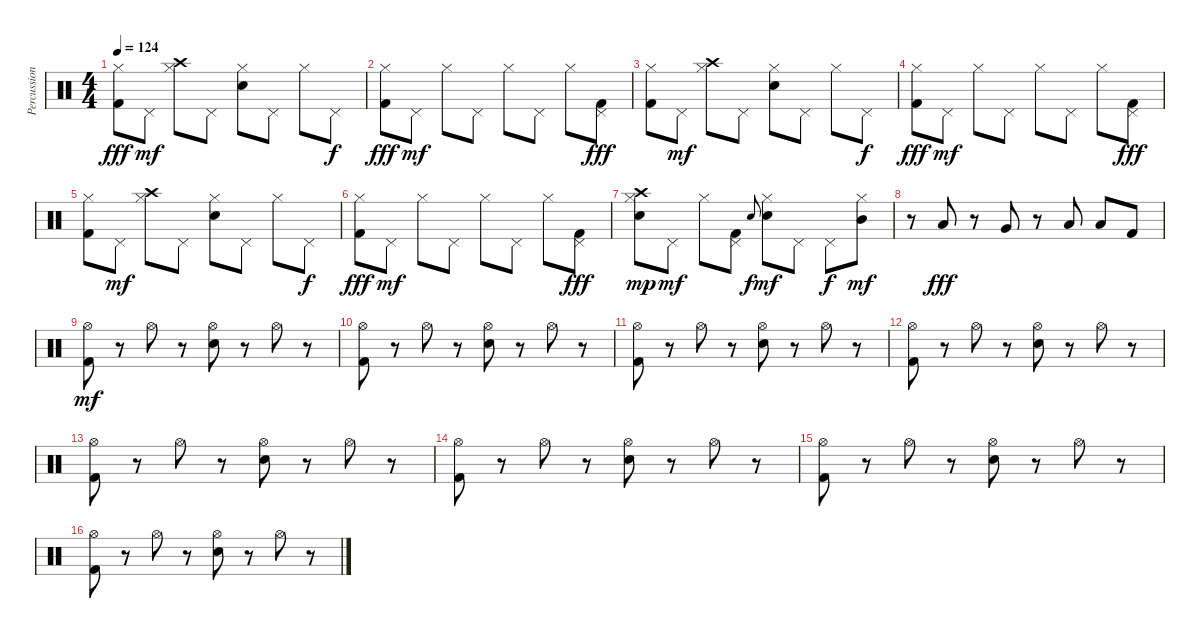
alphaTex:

\track ("Percussion" "Percussion") {instrument percussion}
\staff {score}
\articulation defaults
\ts (4 4)
\tempo 124
\clef neutral
\ks c
("Kick (hit) 2" "Hi-Hat (closed)").8{dy fff} "Pedal Hi-Hat (hit)".8{dy mf} ("Crash high (hit)" "Hi-Hat (closed)").8 "Pedal Hi-Hat (hit)".8 ("Electric Snare (hit)" "Hi-Hat (closed)").8 "Pedal Hi-Hat (hit)".8 "Hi-Hat (closed)".8 "Pedal Hi-Hat (hit)".8{dy f} |
("Kick (hit) 2" "Hi-Hat (closed)").8{dy fff} "Pedal Hi-Hat (hit)".8{dy mf} "Hi-Hat (closed)".8 "Pedal Hi-Hat (hit)".8 "Hi-Hat (closed)".8 "Pedal Hi-Hat (hit)".8 "Hi-Hat (closed)".8 ("Kick (hit) 2" "Pedal Hi-Hat (hit)").8{dy fff} |
("Kick (hit) 2" "Hi-Hat (closed)").8 "Pedal Hi-Hat (hit)".8{dy mf} ("Crash high (hit)" "Hi-Hat (closed)").8 "Pedal Hi-Hat (hit)".8 ("Electric Snare (hit)" "Hi-Hat (closed)").8 "Pedal Hi-Hat (hit)".8 "Hi-Hat (closed)".8 "Pedal Hi-Hat (hit)".8{dy f} |
("Kick (hit) 2" "Hi-Hat (closed)").8{dy fff} "Pedal Hi-Hat (hit)".8{dy mf} "Hi-Hat (closed)".8 "Pedal Hi-Hat (hit)".8 "Hi-Hat (closed)".8 "Pedal Hi-Hat (hit)".8 "Hi-Hat (closed)".8 ("Kick (hit) 2" "Pedal Hi-Hat (hit)").8{dy fff} |
("Kick (hit) 2" "Hi-Hat (closed)").8 "Pedal Hi-Hat (hit)".8{dy mf} ("Crash high (hit)" "Hi-Hat (closed)").8 "Pedal Hi-Hat (hit)".8 ("Electric Snare (hit)" "Hi-Hat (closed)").8 "Pedal Hi-Hat (hit)".8 "Hi-Hat (closed)".8 "Pedal Hi-Hat (hit)".8{dy f} |
("Kick (hit) 2" "Hi-Hat (closed)").8{dy fff} "Pedal Hi-Hat (hit)".8{dy mf} "Hi-Hat (closed)".8 "Pedal Hi-Hat (hit)".8 "Hi-Hat (closed)".8 "Pedal Hi-Hat (hit)".8 "Hi-Hat (closed)".8 ("Kick (hit) 2" "Pedal Hi-Hat (hit)").8{dy fff} |
("Electric Snare (hit)" "Hi-Hat (closed)" "Crash high (hit)").8{dy mp} "Pedal Hi-Hat (hit)".8{dy mf} "Hi-Hat (closed)".8 ("Kick (hit) 2" "Pedal Hi-Hat (hit)").8 "Electric Snare (hit)".8{gr onbeat dy f} ("Electric Snare (hit)" "Hi-Hat (closed)").8{dy mf} "Pedal Hi-Hat (hit)".8 "Pedal Hi-Hat (hit)".8{dy f} ("Mid Tom (hit)" "Hi-Hat (closed)").8{dy mf} |
r.8 "Low Tom (hit)".8{dy fff} r.8 "Very Low Tom (hit)".8 r.8 "Low Floor Tom (hit)".8 "Low Floor Tom (hit)".8 "Kick (hit) 2".8 |
("Kick (hit) 2" "Hi-Hat (open)").8{dy mf} r.8 "Hi-Hat (open)".8 r.8 ("Electric Snare (hit)" "Hi-Hat (open)").8 r.8 "Hi-Hat (open)".8 r.8 |
("Kick (hit) 2" "Hi-Hat (open)").8 r.8 "Hi-Hat (open)".8 r.8 ("Electric Snare (hit)" "Hi-Hat (open)").8 r.8 "Hi-Hat (open)".8 r.8 |
("Kick (hit) 2" "Hi-Hat (open)").8 r.8 "Hi-Hat (open)".8 r.8 ("Electric Snare (hit)" "Hi-Hat (open)").8 r.8 "Hi-Hat (open)".8 r.8 |
("Kick (hit) 2" "Hi-Hat (open)").8 r.8 "Hi-Hat (open)".8 r.8 ("Electric Snare (hit)" "Hi-Hat (open)").8 r.8 "Hi-Hat (open)".8 r.8 |
("Kick (hit) 2" "Hi-Hat (open)").8 r.8 "Hi-Hat (open)".8 r.8 ("Electric Snare (hit)" "Hi-Hat (open)").8 r.8 "Hi-Hat (open)".8 r.8 |
("Kick (hit) 2" "Hi-Hat (open)").8 r.8 "Hi-Hat (open)".8 r.8 ("Electric Snare (hit)" "Hi-Hat (open)").8 r.8 "Hi-Hat (open)".8 r.8 |
("Kick (hit) 2" "Hi-Hat (open)").8 r.8 "Hi-Hat (open)".8 r.8 ("Electric Snare (hit)" "Hi-Hat (open)").8 r.8 "Hi-Hat (open)".8 r.8 |
("Kick (hit) 2" "Hi-Hat (open)").8 r.8 "Hi-Hat (open)".8 r.8 ("Electric Snare (hit)" "Hi-Hat (open)").8 r.8 "Hi-Hat (open)".8 r.8
